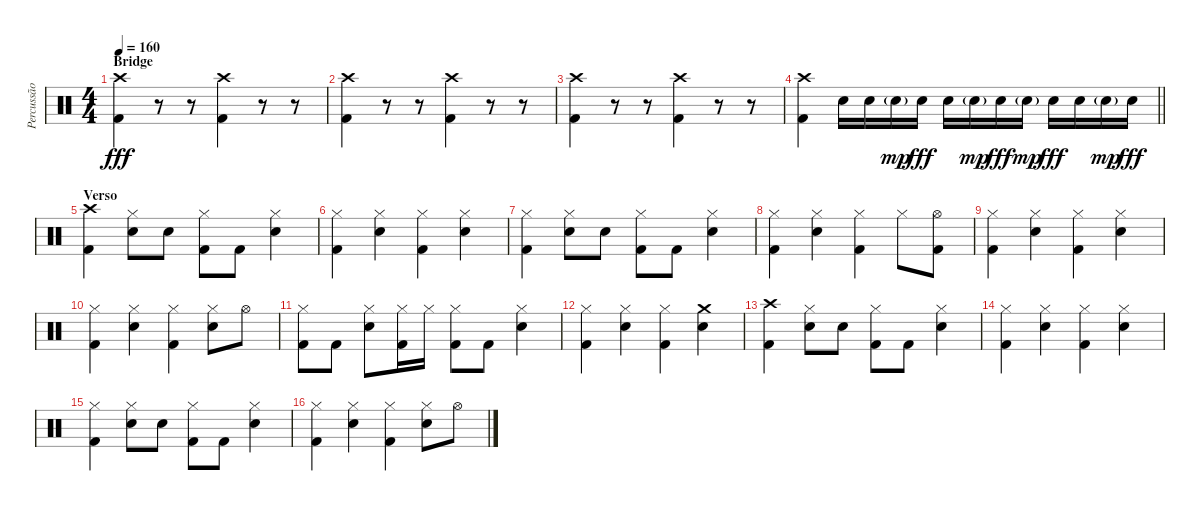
\track ("Percussão" "Percussão") {instrument percussion}
\staff {score}
\articulation defaults
\ts (4 4)
\section ("" "Bridge")
\tempo 160
\clef neutral
\ks c
("Crash high (hit)" "Kick (hit) 2").4{dy fff volume 0} r.8 r.8{volume 16} ("Crash high (hit)" "Kick (hit) 2").4{volume 0} r.8 r.8{volume 16} |
("Crash high (hit)" "Kick (hit) 2").4{volume 0} r.8 r.8{volume 16} ("Crash high (hit)" "Kick (hit) 2").4{volume 0} r.8 r.8{volume 16} |
("Crash high (hit)" "Kick (hit) 2").4{volume 0} r.8 r.8{volume 16} ("Crash high (hit)" "Kick (hit) 2").4{volume 0} r.8 r.8{volume 16} |
\barLineRight lightlight
("Crash high (hit)" "Kick (hit) 2").4 "Electric Snare (hit)".16 "Electric Snare (hit)".16 "Electric Snare (hit)"{g}.16{dy mp} "Electric Snare (hit)".16{dy fff} "Electric Snare (hit)".16 "Electric Snare (hit)"{g}.16{dy mp} "Electric Snare (hit)".16{dy fff} "Electric Snare (hit)"{g}.16{dy mp} "Electric Snare (hit)".16{dy fff} "Electric Snare (hit)".16 "Electric Snare (hit)"{g}.16{dy mp} "Electric Snare (hit)".16{dy fff} |
\section ("" "Verso")
("Crash high (hit)" "Kick (hit) 2").4 ("Hi-Hat (closed)" "Electric Snare (hit)").8 "Electric Snare (hit)".8 ("Hi-Hat (closed)" "Kick (hit) 2").8 "Kick (hit) 2".8 ("Hi-Hat (closed)" "Electric Snare (hit)").4 |
("Hi-Hat (closed)" "Kick (hit) 2").4 ("Hi-Hat (closed)" "Electric Snare (hit)").4 ("Hi-Hat (closed)" "Kick (hit) 2").4 ("Hi-Hat (closed)" "Electric Snare (hit)").4 |
("Hi-Hat (closed)" "Kick (hit) 2").4 ("Hi-Hat (closed)" "Electric Snare (hit)").8 "Electric Snare (hit)".8 ("Hi-Hat (closed)" "Kick (hit) 2").8 "Kick (hit) 2".8 ("Hi-Hat (closed)" "Electric Snare (hit)").4 |
("Hi-Hat (closed)" "Kick (hit) 2").4 ("Hi-Hat (closed)" "Electric Snare (hit)").4 ("Hi-Hat (closed)" "Kick (hit) 2").4 "Hi-Hat (closed)".8 ("Hi-Hat (open)" "Kick (hit) 2").8 |
("Hi-Hat (closed)" "Kick (hit) 2").4 ("Hi-Hat (closed)" "Electric Snare (hit)").4 ("Hi-Hat (closed)" "Kick (hit) 2").4 ("Hi-Hat (closed)" "Electric Snare (hit)").4 |
("Hi-Hat (closed)" "Kick (hit) 2").4 ("Hi-Hat (closed)" "Electric Snare (hit)").4 ("Hi-Hat (closed)" "Kick (hit) 2").4 ("Hi-Hat (closed)" "Electric Snare (hit)").8 "Hi-Hat (open)".8 |
("Hi-Hat (closed)" "Kick (hit) 2").8 "Kick (hit) 2".8 ("Hi-Hat (closed)" "Electric Snare (hit)").8 ("Hi-Hat (closed)" "Kick (hit) 2").16 "Hi-Hat (closed)".16 ("Hi-Hat (closed)" "Kick (hit) 2").8 "Kick (hit) 2".8 ("Hi-Hat (closed)" "Electric Snare (hit)").4 |
("Hi-Hat (closed)" "Kick (hit) 2").4 ("Hi-Hat (closed)" "Electric Snare (hit)").4 ("Hi-Hat (closed)" "Kick (hit) 2").4 ("Crash medium (hit)" "Electric Snare (hit)").4 |
("Crash high (hit)" "Kick (hit) 2").4 ("Hi-Hat (closed)" "Electric Snare (hit)").8 "Electric Snare (hit)".8 ("Hi-Hat (closed)" "Kick (hit) 2").8 "Kick (hit) 2".8 ("Hi-Hat (closed)" "Electric Snare (hit)").4 |
("Hi-Hat (closed)" "Kick (hit) 2").4 ("Hi-Hat (closed)" "Electric Snare (hit)").4 ("Hi-Hat (closed)" "Kick (hit) 2").4 ("Hi-Hat (closed)" "Electric Snare (hit)").4 |
("Hi-Hat (closed)" "Kick (hit) 2").4 ("Hi-Hat (closed)" "Electric Snare (hit)").8 "Electric Snare (hit)".8 ("Hi-Hat (closed)" "Kick (hit) 2").8 "Kick (hit) 2".8 ("Hi-Hat (closed)" "Electric Snare (hit)").4 |
("Hi-Hat (closed)" "Kick (hit) 2").4 ("Hi-Hat (closed)" "Electric Snare (hit)").4 ("Hi-Hat (closed)" "Kick (hit) 2").4 ("Hi-Hat (closed)" "Electric Snare (hit)").8 "Hi-Hat (open)".8
